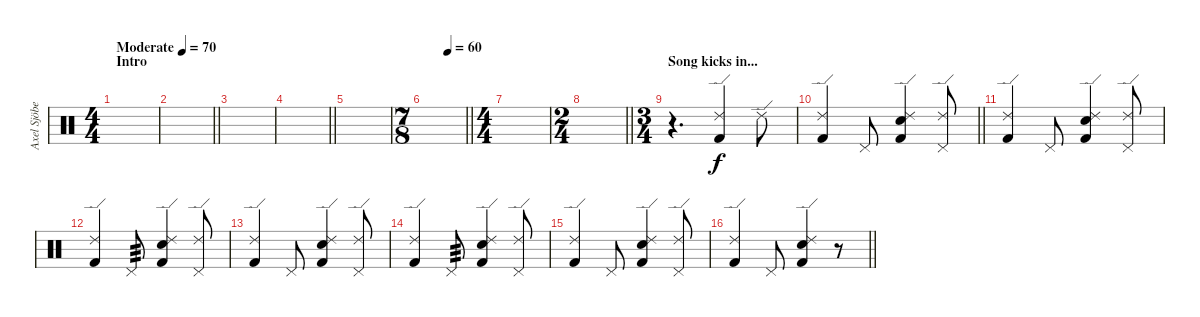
\track ("Axel Sjöberg " "Axel Sjöbe") {instrument percussion}
\staff {score}
\articulation defaults
\ts (4 4)
\section ("" "Intro")
\tempo (70 "Moderate")
\clef neutral
\ks c
|
\barLineRight lightlight
|
|
\barLineRight lightlight
|
|
\ts (7 8)
\tempo (60 0.5714285714285714)
\barLineRight lightlight
|
\ts (4 4)
|
\ts (2 4)
\barLineRight lightlight
|
\ts (3 4)
\section ("" "Song kicks in...")
r.4{d} ("Kick (hit) 2" "Ride (edge) 2").4 "Ride (edge) 2".8 |
\barLineRight lightlight
("Kick (hit) 2" "Ride (edge) 2").4 "Pedal Hi-Hat (hit)".8 ("Kick (hit) 2" "Snare (hit) 2" "Ride (edge) 2").4 ("Ride (edge) 2" "Pedal Hi-Hat (hit)").8 |
("Kick (hit) 2" "Ride (edge) 2").4 "Pedal Hi-Hat (hit)".8 ("Kick (hit) 2" "Snare (hit) 2" "Ride (edge) 2").4 ("Ride (edge) 2" "Pedal Hi-Hat (hit)").8 |
("Kick (hit) 2" "Ride (edge) 2").4 "Pedal Hi-Hat (hit)".8{tp 3} ("Kick (hit) 2" "Snare (hit) 2" "Ride (edge) 2").4 ("Ride (edge) 2" "Pedal Hi-Hat (hit)").8 |
("Kick (hit) 2" "Ride (edge) 2").4 "Pedal Hi-Hat (hit)".8 ("Kick (hit) 2" "Snare (hit) 2" "Ride (edge) 2").4 ("Ride (edge) 2" "Pedal Hi-Hat (hit)").8 |
("Kick (hit) 2" "Ride (edge) 2").4 "Pedal Hi-Hat (hit)".8{tp 3} ("Kick (hit) 2" "Snare (hit) 2" "Ride (edge) 2").4 ("Ride (edge) 2" "Pedal Hi-Hat (hit)").8 |
("Kick (hit) 2" "Ride (edge) 2").4 "Pedal Hi-Hat (hit)".8 ("Kick (hit) 2" "Snare (hit) 2" "Ride (edge) 2").4 ("Ride (edge) 2" "Pedal Hi-Hat (hit)").8 |
\barLineRight lightlight
("Kick (hit) 2" "Ride (edge) 2").4 "Pedal Hi-Hat (hit)".8 ("Kick (hit) 2" "Snare (hit) 2" "Ride (edge) 2").4 r.8
